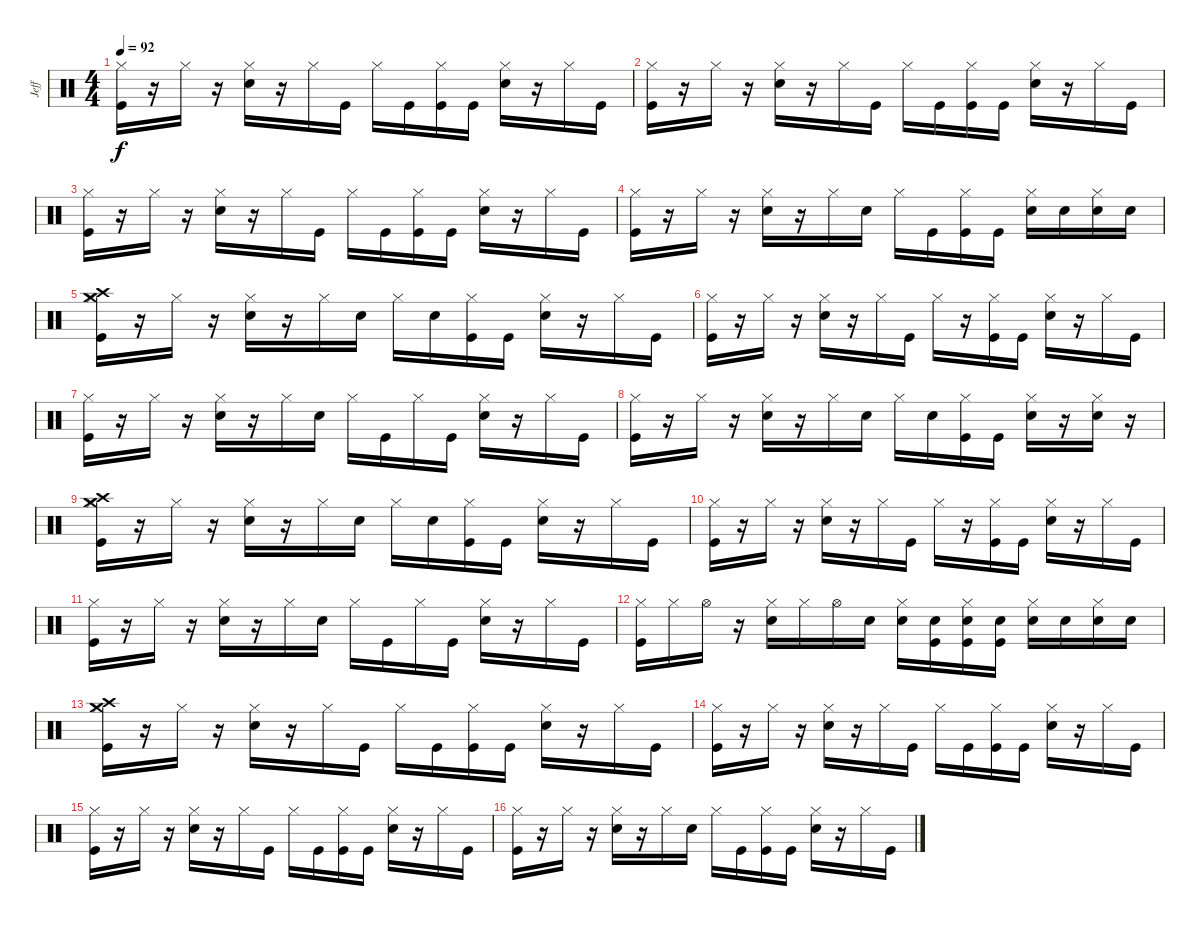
\track ("Jeff" "Jeff") {instrument percussion}
\staff {score}
\articulation defaults
\ts (4 4)
\tempo 92
\clef neutral
\ks c
("Hi-Hat (closed)" "Kick (hit)").16{dy f} r.16 "Hi-Hat (closed)".16 r.16 ("Electric Snare (hit)" "Hi-Hat (closed)").16 r.16 "Hi-Hat (closed)".16 "Kick (hit)".16 "Hi-Hat (closed)".16 "Kick (hit)".16 ("Hi-Hat (closed)" "Kick (hit)").16 "Kick (hit)".16 ("Electric Snare (hit)" "Hi-Hat (closed)").16 r.16 "Hi-Hat (closed)".16 "Kick (hit)".16 |
("Hi-Hat (closed)" "Kick (hit)").16 r.16 "Hi-Hat (closed)".16 r.16 ("Electric Snare (hit)" "Hi-Hat (closed)").16 r.16 "Hi-Hat (closed)".16 "Kick (hit)".16 "Hi-Hat (closed)".16 "Kick (hit)".16 ("Hi-Hat (closed)" "Kick (hit)").16 "Kick (hit)".16 ("Electric Snare (hit)" "Hi-Hat (closed)").16 r.16 "Hi-Hat (closed)".16 "Kick (hit)".16 |
("Hi-Hat (closed)" "Kick (hit)").16 r.16 "Hi-Hat (closed)".16 r.16 ("Electric Snare (hit)" "Hi-Hat (closed)").16 r.16 "Hi-Hat (closed)".16 "Kick (hit)".16 "Hi-Hat (closed)".16 "Kick (hit)".16 ("Hi-Hat (closed)" "Kick (hit)").16 "Kick (hit)".16 ("Electric Snare (hit)" "Hi-Hat (closed)").16 r.16 "Hi-Hat (closed)".16 "Kick (hit)".16 |
("Hi-Hat (closed)" "Kick (hit)").16 r.16 "Hi-Hat (closed)".16 r.16 ("Electric Snare (hit)" "Hi-Hat (closed)").16 r.16 "Hi-Hat (closed)".16 "Electric Snare (hit)".16 "Hi-Hat (closed)".16 "Kick (hit)".16 ("Hi-Hat (closed)" "Kick (hit)").16 "Kick (hit)".16 ("Electric Snare (hit)" "Hi-Hat (closed)").16 "Electric Snare (hit)".16 ("Electric Snare (hit)" "Hi-Hat (closed)").16 "Electric Snare (hit)".16 |
("Crash medium (hit)" "Crash high (hit)" "Hi-Hat (closed)" "Kick (hit)").16 r.16 "Hi-Hat (closed)".16 r.16 ("Electric Snare (hit)" "Hi-Hat (closed)").16 r.16 "Hi-Hat (closed)".16 "Electric Snare (hit)".16 "Hi-Hat (closed)".16 "Electric Snare (hit)".16 ("Hi-Hat (closed)" "Kick (hit)").16 "Kick (hit)".16 ("Electric Snare (hit)" "Hi-Hat (closed)").16 r.16 "Hi-Hat (closed)".16 "Kick (hit)".16 |
("Hi-Hat (closed)" "Kick (hit)").16 r.16 "Hi-Hat (closed)".16 r.16 ("Electric Snare (hit)" "Hi-Hat (closed)").16 r.16 "Hi-Hat (closed)".16 "Kick (hit)".16 "Hi-Hat (closed)".16 r.16 ("Hi-Hat (closed)" "Kick (hit)").16 "Kick (hit)".16 ("Electric Snare (hit)" "Hi-Hat (closed)").16 r.16 "Hi-Hat (closed)".16 "Kick (hit)".16 |
("Hi-Hat (closed)" "Kick (hit)").16 r.16 "Hi-Hat (closed)".16 r.16 ("Electric Snare (hit)" "Hi-Hat (closed)").16 r.16 "Hi-Hat (closed)".16 "Electric Snare (hit)".16 "Hi-Hat (closed)".16 "Kick (hit)".16 "Hi-Hat (closed)".16 "Kick (hit)".16 ("Electric Snare (hit)" "Hi-Hat (closed)").16 r.16 "Hi-Hat (closed)".16 "Kick (hit)".16 |
("Hi-Hat (closed)" "Kick (hit)").16 r.16 "Hi-Hat (closed)".16 r.16 ("Electric Snare (hit)" "Hi-Hat (closed)").16 r.16 "Hi-Hat (closed)".16 "Electric Snare (hit)".16 "Hi-Hat (closed)".16 "Electric Snare (hit)".16 ("Hi-Hat (closed)" "Kick (hit)").16 "Kick (hit)".16 ("Electric Snare (hit)" "Hi-Hat (closed)").16 r.16 ("Electric Snare (hit)" "Hi-Hat (closed)").16 r.16 |
("Crash medium (hit)" "Crash high (hit)" "Hi-Hat (closed)" "Kick (hit)").16 r.16 "Hi-Hat (closed)".16 r.16 ("Electric Snare (hit)" "Hi-Hat (closed)").16 r.16 "Hi-Hat (closed)".16 "Electric Snare (hit)".16 "Hi-Hat (closed)".16 "Electric Snare (hit)".16 ("Hi-Hat (closed)" "Kick (hit)").16 "Kick (hit)".16 ("Electric Snare (hit)" "Hi-Hat (closed)").16 r.16 "Hi-Hat (closed)".16 "Kick (hit)".16 |
("Hi-Hat (closed)" "Kick (hit)").16 r.16 "Hi-Hat (closed)".16 r.16 ("Electric Snare (hit)" "Hi-Hat (closed)").16 r.16 "Hi-Hat (closed)".16 "Kick (hit)".16 "Hi-Hat (closed)".16 r.16 ("Hi-Hat (closed)" "Kick (hit)").16 "Kick (hit)".16 ("Electric Snare (hit)" "Hi-Hat (closed)").16 r.16 "Hi-Hat (closed)".16 "Kick (hit)".16 |
("Hi-Hat (closed)" "Kick (hit)").16 r.16 "Hi-Hat (closed)".16 r.16 ("Electric Snare (hit)" "Hi-Hat (closed)").16 r.16 "Hi-Hat (closed)".16 "Electric Snare (hit)".16 "Hi-Hat (closed)".16 "Kick (hit)".16 "Hi-Hat (closed)".16 "Kick (hit)".16 ("Electric Snare (hit)" "Hi-Hat (closed)").16 r.16 "Hi-Hat (closed)".16 "Kick (hit)".16 |
("Hi-Hat (closed)" "Kick (hit)").16 "Hi-Hat (closed)".16 "Hi-Hat (open)".16 r.16 ("Electric Snare (hit)" "Hi-Hat (closed)").16 "Hi-Hat (closed)".16 "Hi-Hat (open)".16 "Electric Snare (hit)".16 ("Electric Snare (hit)" "Hi-Hat (closed)").16 ("Electric Snare (hit)" "Kick (hit)").16 ("Electric Snare (hit)" "Hi-Hat (closed)" "Kick (hit)").16 ("Electric Snare (hit)" "Kick (hit)").16 ("Electric Snare (hit)" "Hi-Hat (closed)").16 "Electric Snare (hit)".16 ("Electric Snare (hit)" "Hi-Hat (closed)").16 "Electric Snare (hit)".16 |
("Crash medium (hit)" "Hi-Hat (closed)" "Crash high (hit)" "Kick (hit)").16 r.16 "Hi-Hat (closed)".16 r.16 ("Electric Snare (hit)" "Hi-Hat (closed)").16 r.16 "Hi-Hat (closed)".16 "Kick (hit)".16 "Hi-Hat (closed)".16 "Kick (hit)".16 ("Hi-Hat (closed)" "Kick (hit)").16 "Kick (hit)".16 ("Electric Snare (hit)" "Hi-Hat (closed)").16 r.16 "Hi-Hat (closed)".16 "Kick (hit)".16 |
("Hi-Hat (closed)" "Kick (hit)").16 r.16 "Hi-Hat (closed)".16 r.16 ("Electric Snare (hit)" "Hi-Hat (closed)").16 r.16 "Hi-Hat (closed)".16 "Kick (hit)".16 "Hi-Hat (closed)".16 "Kick (hit)".16 ("Hi-Hat (closed)" "Kick (hit)").16 "Kick (hit)".16 ("Electric Snare (hit)" "Hi-Hat (closed)").16 r.16 "Hi-Hat (closed)".16 "Kick (hit)".16 |
("Hi-Hat (closed)" "Kick (hit)").16 r.16 "Hi-Hat (closed)".16 r.16 ("Electric Snare (hit)" "Hi-Hat (closed)").16 r.16 "Hi-Hat (closed)".16 "Kick (hit)".16 "Hi-Hat (closed)".16 "Kick (hit)".16 ("Hi-Hat (closed)" "Kick (hit)").16 "Kick (hit)".16 ("Electric Snare (hit)" "Hi-Hat (closed)").16 r.16 "Hi-Hat (closed)".16 "Kick (hit)".16 |
("Hi-Hat (closed)" "Kick (hit)").16 r.16 "Hi-Hat (closed)".16 r.16 ("Electric Snare (hit)" "Hi-Hat (closed)").16 r.16 "Hi-Hat (closed)".16 "Electric Snare (hit)".16 "Hi-Hat (closed)".16 "Kick (hit)".16 ("Hi-Hat (closed)" "Kick (hit)").16 "Kick (hit)".16 ("Electric Snare (hit)" "Hi-Hat (closed)").16 r.16 "Hi-Hat (closed)".16 "Kick (hit)".16
